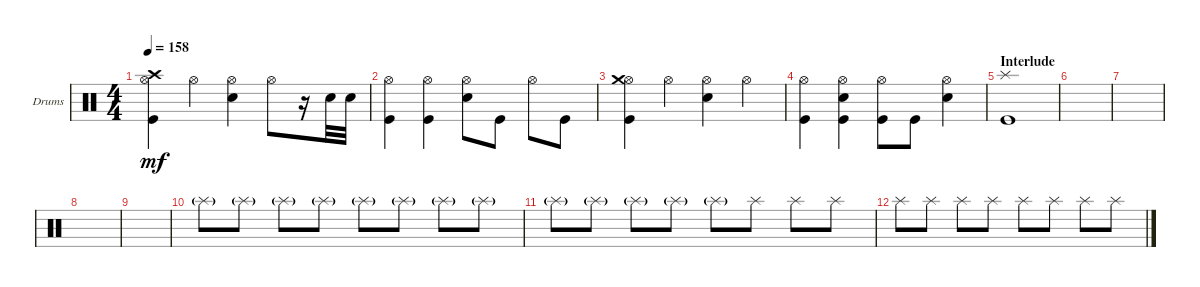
\defaultSystemsLayout 4
\bracketExtendMode groupsimilarinstruments
\firstSystemTrackNameOrientation horizontal
\otherSystemsTrackNameOrientation horizontal
\track ("Drumkit" "Drums") {instrument percussion}
\staff {score}
\articulation defaults
\ts (4 4)
\tempo 158
\clef neutral
\ks c
("Crash high (hit)" "Hi-Hat (open)" "Kick (hit)").4{dy mf} "Hi-Hat (open)".4 ("Hi-Hat (open)" "Snare (hit) 2").4 "Hi-Hat (open)".8 r.16 "Snare (hit) 2".32 "Snare (hit) 2".32 |
("Hi-Hat (open)" "Kick (hit)").4 ("Hi-Hat (open)" "Kick (hit)").4 ("Hi-Hat (open)" "Snare (hit) 2").8 "Kick (hit)".8 "Hi-Hat (open)".8 "Kick (hit)".8 |
("Hi-Hat (open)" "Kick (hit)" "Crash medium (hit)").4 "Hi-Hat (open)".4 ("Hi-Hat (open)" "Snare (hit) 2").4 "Hi-Hat (open)".4 |
("Hi-Hat (open)" "Kick (hit)").4 ("Hi-Hat (open)" "Kick (hit)" "Snare (hit) 2").4 ("Hi-Hat (open)" "Kick (hit)").8 "Kick (hit)".8 ("Hi-Hat (open)" "Snare (hit) 2").4 |
\section ("" "Interlude")
("Splash (hit)" "Kick (hit)").1 |
|
|
|
|
"Splash (hit)"{g}.8 "Splash (hit)"{g}.8 "Splash (hit)"{g}.8 "Splash (hit)"{g}.8 "Splash (hit)"{g}.8 "Splash (hit)"{g}.8 "Splash (hit)"{g}.8 "Splash (hit)"{g}.8 |
"Splash (hit)"{g}.8 "Splash (hit)"{g}.8 "Splash (hit)"{g}.8 "Splash (hit)"{g}.8 "Splash (hit)"{g}.8 "Splash (hit)".8 "Splash (hit)".8 "Splash (hit)".8 |
"Splash (hit)".8 "Splash (hit)".8 "Splash (hit)".8 "Splash (hit)".8 "Splash (hit)".8 "Splash (hit)".8 "Splash (hit)".8 "Splash (hit)".8
